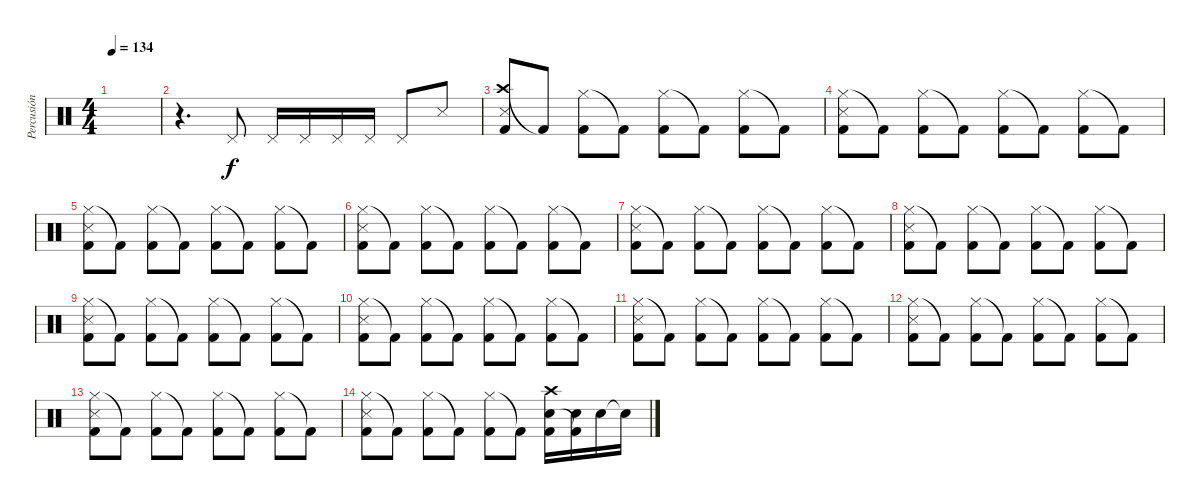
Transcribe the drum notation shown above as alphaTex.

\track ("Percusión" "Percusión") {instrument percussion}
\staff {score}
\articulation defaults
\ts (4 4)
\tempo 134
\clef neutral
\ks c
|
r.4{d} "Pedal Hi-Hat (hit)".8 "Pedal Hi-Hat (hit)".16 "Pedal Hi-Hat (hit)".16 "Pedal Hi-Hat (hit)".16 "Pedal Hi-Hat (hit)".16 "Pedal Hi-Hat (hit)".8 "Snare (side stick) 3".8 |
("Crash high (hit)" "Snare (side stick) 3" "Kick (hit) 2").8 "Kick (hit) 2"{t}.8 ("Hi-Hat (closed)" "Kick (hit) 2").8 "Kick (hit) 2"{t}.8 ("Hi-Hat (closed)" "Kick (hit) 2").8 "Kick (hit) 2"{t}.8 ("Hi-Hat (closed)" "Kick (hit) 2").8 "Kick (hit) 2"{t}.8 |
("Hi-Hat (closed)" "Snare (side stick) 3" "Kick (hit) 2").8 "Kick (hit) 2"{t}.8 ("Hi-Hat (closed)" "Kick (hit) 2").8 "Kick (hit) 2"{t}.8 ("Hi-Hat (closed)" "Kick (hit) 2").8 "Kick (hit) 2"{t}.8 ("Hi-Hat (closed)" "Kick (hit) 2").8 "Kick (hit) 2"{t}.8 |
("Hi-Hat (closed)" "Snare (side stick) 3" "Kick (hit) 2").8 "Kick (hit) 2"{t}.8 ("Hi-Hat (closed)" "Kick (hit) 2").8 "Kick (hit) 2"{t}.8 ("Hi-Hat (closed)" "Kick (hit) 2").8 "Kick (hit) 2"{t}.8 ("Hi-Hat (closed)" "Kick (hit) 2").8 "Kick (hit) 2"{t}.8 |
("Hi-Hat (closed)" "Snare (side stick) 3" "Kick (hit) 2").8 "Kick (hit) 2"{t}.8 ("Hi-Hat (closed)" "Kick (hit) 2").8 "Kick (hit) 2"{t}.8 ("Hi-Hat (closed)" "Kick (hit) 2").8 "Kick (hit) 2"{t}.8 ("Hi-Hat (closed)" "Kick (hit) 2").8 "Kick (hit) 2"{t}.8 |
("Hi-Hat (closed)" "Snare (side stick) 3" "Kick (hit) 2").8 "Kick (hit) 2"{t}.8 ("Hi-Hat (closed)" "Kick (hit) 2").8 "Kick (hit) 2"{t}.8 ("Hi-Hat (closed)" "Kick (hit) 2").8 "Kick (hit) 2"{t}.8 ("Hi-Hat (closed)" "Kick (hit) 2").8 "Kick (hit) 2"{t}.8 |
("Hi-Hat (closed)" "Snare (side stick) 3" "Kick (hit) 2").8 "Kick (hit) 2"{t}.8 ("Hi-Hat (closed)" "Kick (hit) 2").8 "Kick (hit) 2"{t}.8 ("Hi-Hat (closed)" "Kick (hit) 2").8 "Kick (hit) 2"{t}.8 ("Hi-Hat (closed)" "Kick (hit) 2").8 "Kick (hit) 2"{t}.8 |
("Hi-Hat (closed)" "Snare (side stick) 3" "Kick (hit) 2").8 "Kick (hit) 2"{t}.8 ("Hi-Hat (closed)" "Kick (hit) 2").8 "Kick (hit) 2"{t}.8 ("Hi-Hat (closed)" "Kick (hit) 2").8 "Kick (hit) 2"{t}.8 ("Hi-Hat (closed)" "Kick (hit) 2").8 "Kick (hit) 2"{t}.8 |
("Hi-Hat (closed)" "Snare (side stick) 3" "Kick (hit) 2").8 "Kick (hit) 2"{t}.8 ("Hi-Hat (closed)" "Kick (hit) 2").8 "Kick (hit) 2"{t}.8 ("Hi-Hat (closed)" "Kick (hit) 2").8 "Kick (hit) 2"{t}.8 ("Hi-Hat (closed)" "Kick (hit) 2").8 "Kick (hit) 2"{t}.8 |
("Hi-Hat (closed)" "Snare (side stick) 3" "Kick (hit) 2").8 "Kick (hit) 2"{t}.8 ("Hi-Hat (closed)" "Kick (hit) 2").8 "Kick (hit) 2"{t}.8 ("Hi-Hat (closed)" "Kick (hit) 2").8 "Kick (hit) 2"{t}.8 ("Hi-Hat (closed)" "Kick (hit) 2").8 "Kick (hit) 2"{t}.8 |
("Hi-Hat (closed)" "Snare (side stick) 3" "Kick (hit) 2").8 "Kick (hit) 2"{t}.8 ("Hi-Hat (closed)" "Kick (hit) 2").8 "Kick (hit) 2"{t}.8 ("Hi-Hat (closed)" "Kick (hit) 2").8 "Kick (hit) 2"{t}.8 ("Hi-Hat (closed)" "Kick (hit) 2").8 "Kick (hit) 2"{t}.8 |
("Hi-Hat (closed)" "Snare (side stick) 3" "Kick (hit) 2").8 "Kick (hit) 2"{t}.8 ("Hi-Hat (closed)" "Kick (hit) 2").8 "Kick (hit) 2"{t}.8 ("Hi-Hat (closed)" "Kick (hit) 2").8 "Kick (hit) 2"{t}.8 ("Hi-Hat (closed)" "Kick (hit) 2").8 "Kick (hit) 2"{t}.8 |
("Hi-Hat (closed)" "Snare (side stick) 3" "Kick (hit) 2").8 "Kick (hit) 2"{t}.8 ("Hi-Hat (closed)" "Kick (hit) 2").8 "Kick (hit) 2"{t}.8 ("Hi-Hat (closed)" "Kick (hit) 2").8 "Kick (hit) 2"{t}.8 ("Crash high (hit)" "Electric Snare (hit)" "Kick (hit) 2").16 ("Electric Snare (hit)" "Kick (hit) 2"{t}).16 "Electric Snare (hit)".16 "Snare (hit)"{t}.16
